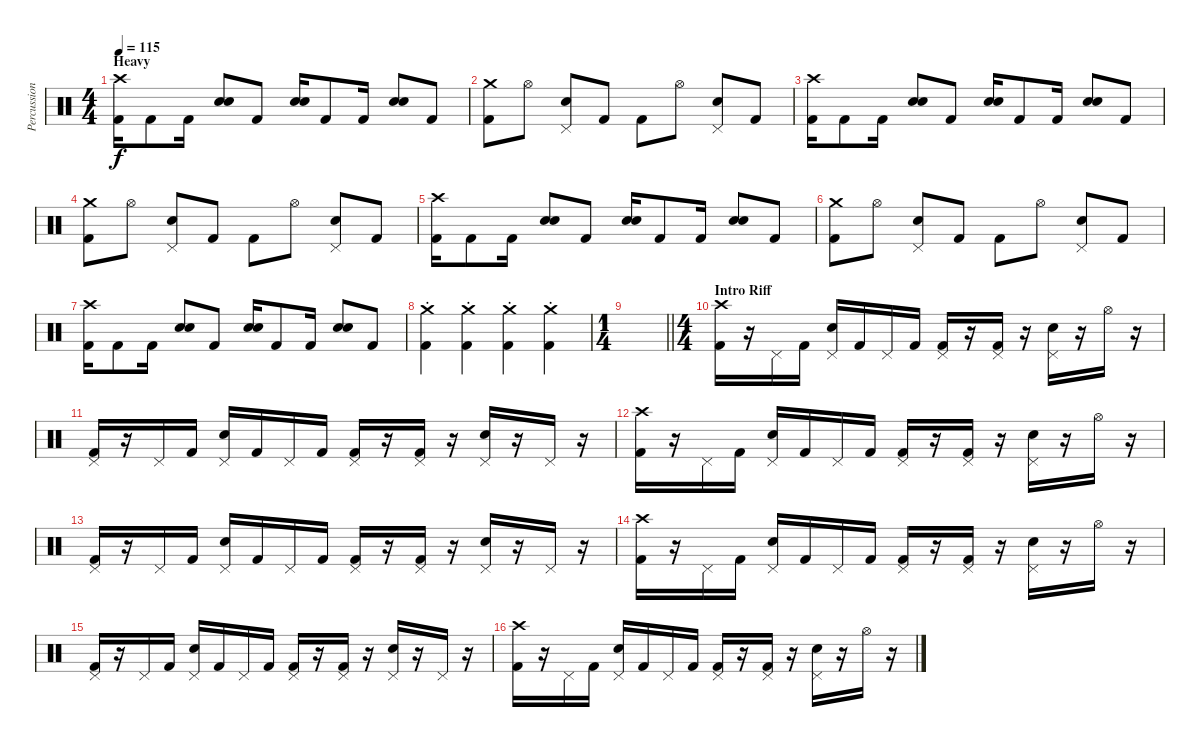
\track ("Percussion" "Percussion") {instrument percussion}
\staff {score}
\articulation defaults
\ts (4 4)
\section ("" "Heavy")
\tempo 115
\clef neutral
\ks c
("Crash high (hit)" "Kick (hit) 2").16{dy f} "Kick (hit) 2".8 "Kick (hit) 2".16 ("Electric Snare (hit)" "Electric Snare (hit)").8 "Kick (hit) 2".8 ("Electric Snare (hit)" "Electric Snare (hit)").16 "Kick (hit) 2".8 "Kick (hit) 2".16 ("Electric Snare (hit)" "Electric Snare (hit)").8 "Kick (hit) 2".8 |
("Crash medium (hit)" "Kick (hit) 2").8 "Hi-Hat (open)".8 ("Pedal Hi-Hat (hit)" "Electric Snare (hit)").8 "Kick (hit) 2".8 "Kick (hit) 2".8 "Hi-Hat (open)".8 ("Pedal Hi-Hat (hit)" "Electric Snare (hit)").8 "Kick (hit) 2".8 |
("Crash high (hit)" "Kick (hit) 2").16 "Kick (hit) 2".8 "Kick (hit) 2".16 ("Electric Snare (hit)" "Electric Snare (hit)").8 "Kick (hit) 2".8 ("Electric Snare (hit)" "Electric Snare (hit)").16 "Kick (hit) 2".8 "Kick (hit) 2".16 ("Electric Snare (hit)" "Electric Snare (hit)").8 "Kick (hit) 2".8 |
("Crash medium (hit)" "Kick (hit) 2").8 "Hi-Hat (open)".8 ("Pedal Hi-Hat (hit)" "Electric Snare (hit)").8 "Kick (hit) 2".8 "Kick (hit) 2".8 "Hi-Hat (open)".8 ("Pedal Hi-Hat (hit)" "Electric Snare (hit)").8 "Kick (hit) 2".8 |
("Crash high (hit)" "Kick (hit) 2").16 "Kick (hit) 2".8 "Kick (hit) 2".16 ("Electric Snare (hit)" "Electric Snare (hit)").8 "Kick (hit) 2".8 ("Electric Snare (hit)" "Electric Snare (hit)").16 "Kick (hit) 2".8 "Kick (hit) 2".16 ("Electric Snare (hit)" "Electric Snare (hit)").8 "Kick (hit) 2".8 |
("Crash medium (hit)" "Kick (hit) 2").8 "Hi-Hat (open)".8 ("Pedal Hi-Hat (hit)" "Electric Snare (hit)").8 "Kick (hit) 2".8 "Kick (hit) 2".8 "Hi-Hat (open)".8 ("Pedal Hi-Hat (hit)" "Electric Snare (hit)").8 "Kick (hit) 2".8 |
("Crash high (hit)" "Kick (hit) 2").16 "Kick (hit) 2".8 "Kick (hit) 2".16 ("Electric Snare (hit)" "Electric Snare (hit)").8 "Kick (hit) 2".8 ("Electric Snare (hit)" "Electric Snare (hit)").16 "Kick (hit) 2".8 "Kick (hit) 2".16 ("Electric Snare (hit)" "Electric Snare (hit)").8 "Kick (hit) 2".8 |
("Crash medium (hit)"{st} "Kick (hit) 2"{st}).4 ("Crash medium (hit)"{st} "Kick (hit) 2"{st}).4 ("Crash medium (hit)"{st} "Kick (hit) 2"{st}).4 ("Crash medium (hit)"{st} "Kick (hit) 2"{st}).4 |
\ts (1 4)
\barLineRight lightlight
|
\ts (4 4)
\section ("" "Intro Riff")
("Crash high (hit)" "Kick (hit) 2").16 r.16 "Pedal Hi-Hat (hit)".16 "Kick (hit) 2".16 ("Pedal Hi-Hat (hit)" "Electric Snare (hit)").16 "Kick (hit) 2".16 "Pedal Hi-Hat (hit)".16 "Kick (hit) 2".16 ("Pedal Hi-Hat (hit)" "Kick (hit) 2").16 r.16 ("Pedal Hi-Hat (hit)" "Kick (hit) 2").16 r.16 ("Pedal Hi-Hat (hit)" "Electric Snare (hit)").16 r.16 "Hi-Hat (open)".16 r.16 |
("Pedal Hi-Hat (hit)" "Kick (hit) 2").16 r.16 "Pedal Hi-Hat (hit)".16 "Kick (hit) 2".16 ("Pedal Hi-Hat (hit)" "Electric Snare (hit)").16 "Kick (hit) 2".16 "Pedal Hi-Hat (hit)".16 "Kick (hit) 2".16 ("Pedal Hi-Hat (hit)" "Kick (hit) 2").16 r.16 ("Pedal Hi-Hat (hit)" "Kick (hit) 2").16 r.16 ("Pedal Hi-Hat (hit)" "Electric Snare (hit)").16 r.16 "Pedal Hi-Hat (hit)".16 r.16 |
("Crash high (hit)" "Kick (hit) 2").16 r.16 "Pedal Hi-Hat (hit)".16 "Kick (hit) 2".16 ("Pedal Hi-Hat (hit)" "Electric Snare (hit)").16 "Kick (hit) 2".16 "Pedal Hi-Hat (hit)".16 "Kick (hit) 2".16 ("Pedal Hi-Hat (hit)" "Kick (hit) 2").16 r.16 ("Pedal Hi-Hat (hit)" "Kick (hit) 2").16 r.16 ("Pedal Hi-Hat (hit)" "Electric Snare (hit)").16 r.16 "Hi-Hat (open)".16 r.16 |
("Pedal Hi-Hat (hit)" "Kick (hit) 2").16 r.16 "Pedal Hi-Hat (hit)".16 "Kick (hit) 2".16 ("Pedal Hi-Hat (hit)" "Electric Snare (hit)").16 "Kick (hit) 2".16 "Pedal Hi-Hat (hit)".16 "Kick (hit) 2".16 ("Pedal Hi-Hat (hit)" "Kick (hit) 2").16 r.16 ("Pedal Hi-Hat (hit)" "Kick (hit) 2").16 r.16 ("Pedal Hi-Hat (hit)" "Electric Snare (hit)").16 r.16 "Pedal Hi-Hat (hit)".16 r.16 |
("Crash high (hit)" "Kick (hit) 2").16 r.16 "Pedal Hi-Hat (hit)".16 "Kick (hit) 2".16 ("Pedal Hi-Hat (hit)" "Electric Snare (hit)").16 "Kick (hit) 2".16 "Pedal Hi-Hat (hit)".16 "Kick (hit) 2".16 ("Pedal Hi-Hat (hit)" "Kick (hit) 2").16 r.16 ("Pedal Hi-Hat (hit)" "Kick (hit) 2").16 r.16 ("Pedal Hi-Hat (hit)" "Electric Snare (hit)").16 r.16 "Hi-Hat (open)".16 r.16 |
("Pedal Hi-Hat (hit)" "Kick (hit) 2").16 r.16 "Pedal Hi-Hat (hit)".16 "Kick (hit) 2".16 ("Pedal Hi-Hat (hit)" "Electric Snare (hit)").16 "Kick (hit) 2".16 "Pedal Hi-Hat (hit)".16 "Kick (hit) 2".16 ("Pedal Hi-Hat (hit)" "Kick (hit) 2").16 r.16 ("Pedal Hi-Hat (hit)" "Kick (hit) 2").16 r.16 ("Pedal Hi-Hat (hit)" "Electric Snare (hit)").16 r.16 "Pedal Hi-Hat (hit)".16 r.16 |
("Crash high (hit)" "Kick (hit) 2").16 r.16 "Pedal Hi-Hat (hit)".16 "Kick (hit) 2".16 ("Pedal Hi-Hat (hit)" "Electric Snare (hit)").16 "Kick (hit) 2".16 "Pedal Hi-Hat (hit)".16 "Kick (hit) 2".16 ("Pedal Hi-Hat (hit)" "Kick (hit) 2").16 r.16 ("Pedal Hi-Hat (hit)" "Kick (hit) 2").16 r.16 ("Pedal Hi-Hat (hit)" "Electric Snare (hit)").16 r.16 "Hi-Hat (open)".16 r.16
